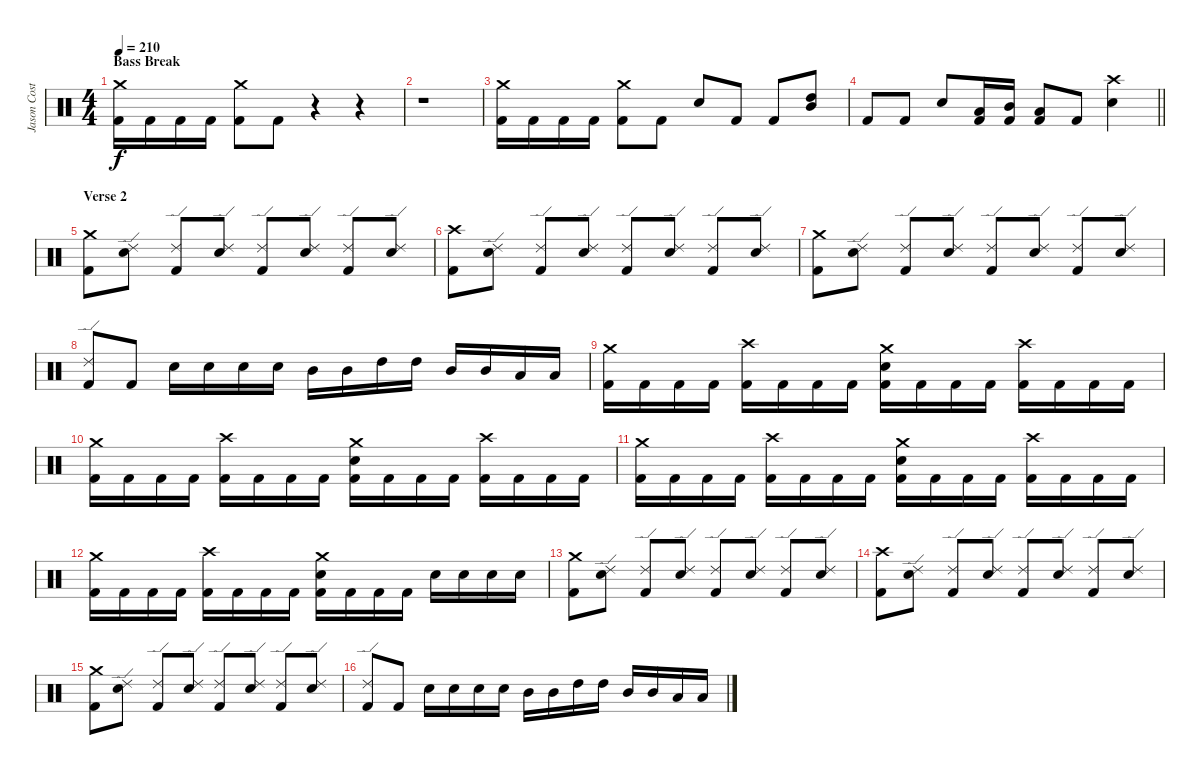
\track ("Jason Costa" "Jason Cost") {instrument percussion}
\staff {score}
\articulation defaults
\ts (4 4)
\section ("" "Bass Break")
\tempo 210
\clef neutral
\ks c
("Crash medium (hit)" "Kick (hit) 2").16{dy f} "Kick (hit) 2".16 "Kick (hit) 2".16 "Kick (hit) 2".16 ("Crash medium (hit)" "Kick (hit) 2").8 "Kick (hit) 2".8 r.4 r.4 |
r.1 |
("Crash medium (hit)" "Kick (hit) 2").16 "Kick (hit) 2".16 "Kick (hit) 2".16 "Kick (hit) 2".16 ("Crash medium (hit)" "Kick (hit) 2").8 "Kick (hit) 2".8 "Electric Snare (hit)".8 "Kick (hit) 2".8 "Kick (hit) 2".8 ("High Tom (hit)" "Mid Tom (hit)").8 |
\barLineRight lightlight "Kick (hit) 2".8 "Kick (hit) 2".8 "Electric Snare (hit)".8
("Low Tom (hit)" "Kick (hit) 2").16 ("Mid Tom (hit)" "Kick (hit) 2").16 ("Low Tom (hit)" "Kick (hit) 2").8 "Kick (hit) 2".8 ("Crash high (hit)" "Electric Snare (hit)").4 |
\section ("" "Verse 2")
("Crash medium (hit)" "Kick (hit) 2").8 ("Ride (edge) 2" "Electric Snare (hit)").8 ("Ride (edge) 2" "Kick (hit) 2").8 ("Ride (edge) 2" "Electric Snare (hit)").8 ("Ride (edge) 2" "Kick (hit) 2").8 ("Ride (edge) 2" "Electric Snare (hit)").8 ("Ride (edge) 2" "Kick (hit) 2").8 ("Ride (edge) 2" "Electric Snare (hit)").8 |
("Crash high (hit)" "Kick (hit) 2").8 ("Ride (edge) 2" "Electric Snare (hit)").8 ("Ride (edge) 2" "Kick (hit) 2").8 ("Ride (edge) 2" "Electric Snare (hit)").8 ("Ride (edge) 2" "Kick (hit) 2").8 ("Ride (edge) 2" "Electric Snare (hit)").8 ("Ride (edge) 2" "Kick (hit) 2").8 ("Ride (edge) 2" "Electric Snare (hit)").8 |
("Crash medium (hit)" "Kick (hit) 2").8 ("Ride (edge) 2" "Electric Snare (hit)").8 ("Ride (edge) 2" "Kick (hit) 2").8 ("Ride (edge) 2" "Electric Snare (hit)").8 ("Ride (edge) 2" "Kick (hit) 2").8 ("Ride (edge) 2" "Electric Snare (hit)").8 ("Ride (edge) 2" "Kick (hit) 2").8 ("Ride (edge) 2" "Electric Snare (hit)").8 |
("Ride (edge) 2" "Kick (hit) 2").8 "Kick (hit) 2".8 "Electric Snare (hit)".16 "Electric Snare (hit)".16 "Electric Snare (hit)".16 "Electric Snare (hit)".16 "Mid Tom (hit)".16 "Mid Tom (hit)".16 "High Tom (hit)".16 "High Tom (hit)".16 "Mid Tom (hit)".16 "Mid Tom (hit)".16 "Low Tom (hit)".16 "Low Tom (hit)".16 |
("Crash medium (hit)" "Kick (hit) 2").16 "Kick (hit) 2".16 "Kick (hit) 2".16 "Kick (hit) 2".16 ("Crash high (hit)" "Kick (hit) 2").16 "Kick (hit) 2".16 "Kick (hit) 2".16 "Kick (hit) 2".16 ("Crash medium (hit)" "Electric Snare (hit)" "Kick (hit) 2").16 "Kick (hit) 2".16 "Kick (hit) 2".16 "Kick (hit) 2".16 ("Crash high (hit)" "Kick (hit) 2").16 "Kick (hit) 2".16 "Kick (hit) 2".16 "Kick (hit) 2".16 |
("Crash medium (hit)" "Kick (hit) 2").16 "Kick (hit) 2".16 "Kick (hit) 2".16 "Kick (hit) 2".16 ("Crash high (hit)" "Kick (hit) 2").16 "Kick (hit) 2".16 "Kick (hit) 2".16 "Kick (hit) 2".16 ("Crash medium (hit)" "Electric Snare (hit)" "Kick (hit) 2").16 "Kick (hit) 2".16 "Kick (hit) 2".16 "Kick (hit) 2".16 ("Crash high (hit)" "Kick (hit) 2").16 "Kick (hit) 2".16 "Kick (hit) 2".16 "Kick (hit) 2".16 |
("Crash medium (hit)" "Kick (hit) 2").16 "Kick (hit) 2".16 "Kick (hit) 2".16 "Kick (hit) 2".16 ("Crash high (hit)" "Kick (hit) 2").16 "Kick (hit) 2".16 "Kick (hit) 2".16 "Kick (hit) 2".16 ("Crash medium (hit)" "Electric Snare (hit)" "Kick (hit) 2").16 "Kick (hit) 2".16 "Kick (hit) 2".16 "Kick (hit) 2".16 ("Crash high (hit)" "Kick (hit) 2").16 "Kick (hit) 2".16 "Kick (hit) 2".16 "Kick (hit) 2".16 |
("Crash medium (hit)" "Kick (hit) 2").16 "Kick (hit) 2".16 "Kick (hit) 2".16 "Kick (hit) 2".16 ("Crash high (hit)" "Kick (hit) 2").16 "Kick (hit) 2".16 "Kick (hit) 2".16 "Kick (hit) 2".16 ("Crash medium (hit)" "Electric Snare (hit)" "Kick (hit) 2").16 "Kick (hit) 2".16 "Kick (hit) 2".16 "Kick (hit) 2".16 "Electric Snare (hit)".16 "Electric Snare (hit)".16 "Electric Snare (hit)".16 "Electric Snare (hit)".16 |
("Crash medium (hit)" "Kick (hit) 2").8 ("Ride (edge) 2" "Electric Snare (hit)").8 ("Ride (edge) 2" "Kick (hit) 2").8 ("Ride (edge) 2" "Electric Snare (hit)").8 ("Ride (edge) 2" "Kick (hit) 2").8 ("Ride (edge) 2" "Electric Snare (hit)").8 ("Ride (edge) 2" "Kick (hit) 2").8 ("Ride (edge) 2" "Electric Snare (hit)").8 |
("Crash high (hit)" "Kick (hit) 2").8 ("Ride (edge) 2" "Electric Snare (hit)").8 ("Ride (edge) 2" "Kick (hit) 2").8 ("Ride (edge) 2" "Electric Snare (hit)").8 ("Ride (edge) 2" "Kick (hit) 2").8 ("Ride (edge) 2" "Electric Snare (hit)").8 ("Ride (edge) 2" "Kick (hit) 2").8 ("Ride (edge) 2" "Electric Snare (hit)").8 |
("Crash medium (hit)" "Kick (hit) 2").8 ("Ride (edge) 2" "Electric Snare (hit)").8 ("Ride (edge) 2" "Kick (hit) 2").8 ("Ride (edge) 2" "Electric Snare (hit)").8 ("Ride (edge) 2" "Kick (hit) 2").8 ("Ride (edge) 2" "Electric Snare (hit)").8 ("Ride (edge) 2" "Kick (hit) 2").8 ("Ride (edge) 2" "Electric Snare (hit)").8 |
("Ride (edge) 2" "Kick (hit) 2").8 "Kick (hit) 2".8 "Electric Snare (hit)".16 "Electric Snare (hit)".16 "Electric Snare (hit)".16 "Electric Snare (hit)".16 "Mid Tom (hit)".16 "Mid Tom (hit)".16 "High Tom (hit)".16 "High Tom (hit)".16 "Mid Tom (hit)".16 "Mid Tom (hit)".16 "Low Tom (hit)".16 "Low Tom (hit)".16
